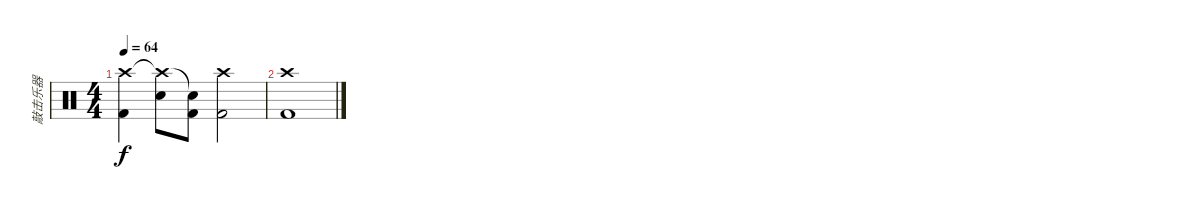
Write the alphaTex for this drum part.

\track ("敲击乐器" "敲击乐器") {instrument percussion}
\staff {score}
\articulation defaults
\ts (4 4)
\tempo 64
\clef neutral
\ks c
("Kick (hit) 2" "Crash high (hit)").4{dy f} ("Electric Snare (hit)" "Crash high (hit)"{t}).8 ("Kick (hit) 2" "Snare (hit)"{t}).8 ("Kick (hit) 2" "Crash high (hit)").2 |
("Kick (hit) 2" "Crash high (hit)").1
